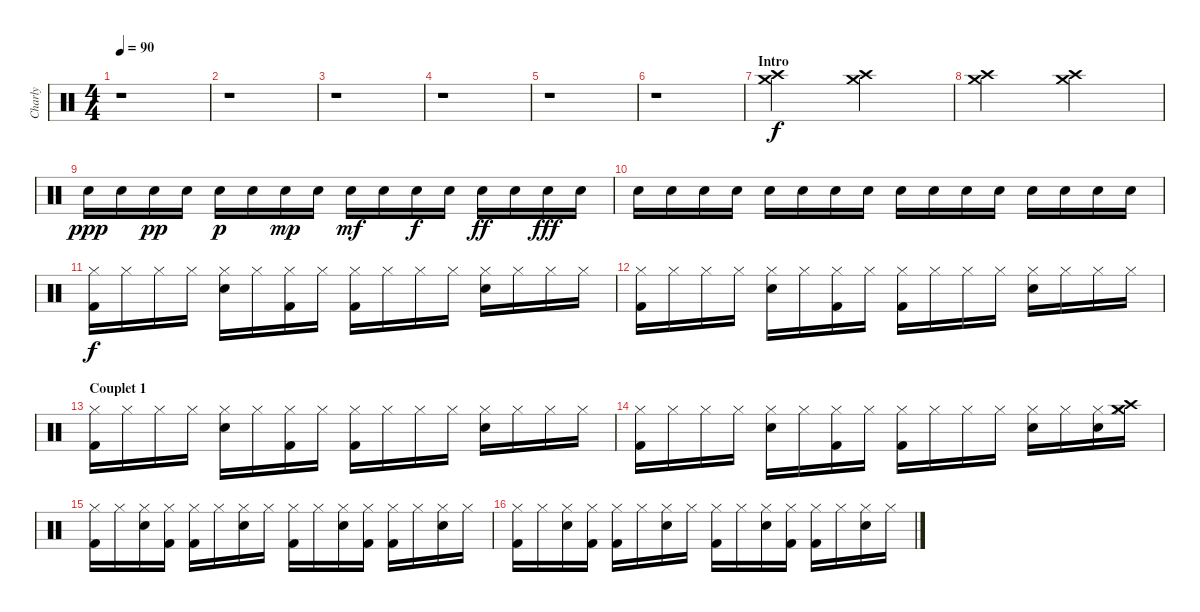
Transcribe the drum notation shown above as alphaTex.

\track ("Charly" "Charly") {instrument percussion}
\staff {score}
\articulation defaults
\ts (4 4)
\tempo 90
\clef neutral
\ks c
r.1{dy f} |
r.1 |
r.1 |
r.1 |
r.1 |
r.1 |
\section ("" "Intro")
("Crash high (hit)" "Crash medium (hit)").2 ("Crash high (hit)" "Crash medium (hit)").2 |
("Crash high (hit)" "Crash medium (hit)").2 ("Crash high (hit)" "Crash medium (hit)").2 |
"Electric Snare (hit)".16{dy ppp} "Electric Snare (hit)".16 "Electric Snare (hit)".16{dy pp} "Electric Snare (hit)".16 "Electric Snare (hit)".16{dy p} "Electric Snare (hit)".16 "Electric Snare (hit)".16{dy mp} "Electric Snare (hit)".16 "Electric Snare (hit)".16{dy mf} "Electric Snare (hit)".16 "Electric Snare (hit)".16{dy f} "Electric Snare (hit)".16 "Electric Snare (hit)".16{dy ff} "Electric Snare (hit)".16 "Electric Snare (hit)".16{dy fff} "Electric Snare (hit)".16 |
"Electric Snare (hit)".16 "Electric Snare (hit)".16 "Electric Snare (hit)".16 "Electric Snare (hit)".16 "Electric Snare (hit)".16 "Electric Snare (hit)".16 "Electric Snare (hit)".16 "Electric Snare (hit)".16 "Electric Snare (hit)".16 "Electric Snare (hit)".16 "Electric Snare (hit)".16 "Electric Snare (hit)".16 "Electric Snare (hit)".16 "Electric Snare (hit)".16 "Electric Snare (hit)".16 "Electric Snare (hit)".16 |
("Hi-Hat (closed)" "Kick (hit) 2").16{dy f} "Hi-Hat (closed)".16 "Hi-Hat (closed)".16 "Hi-Hat (closed)".16 ("Hi-Hat (closed)" "Electric Snare (hit)").16 "Hi-Hat (closed)".16 ("Hi-Hat (closed)" "Kick (hit) 2").16 "Hi-Hat (closed)".16 ("Hi-Hat (closed)" "Kick (hit) 2").16 "Hi-Hat (closed)".16 "Hi-Hat (closed)".16 "Hi-Hat (closed)".16 ("Hi-Hat (closed)" "Electric Snare (hit)").16 "Hi-Hat (closed)".16 "Hi-Hat (closed)".16 "Hi-Hat (closed)".16 |
("Hi-Hat (closed)" "Kick (hit) 2").16 "Hi-Hat (closed)".16 "Hi-Hat (closed)".16 "Hi-Hat (closed)".16 ("Hi-Hat (closed)" "Electric Snare (hit)").16 "Hi-Hat (closed)".16 ("Hi-Hat (closed)" "Kick (hit) 2").16 "Hi-Hat (closed)".16 ("Hi-Hat (closed)" "Kick (hit) 2").16 "Hi-Hat (closed)".16 "Hi-Hat (closed)".16 "Hi-Hat (closed)".16 ("Hi-Hat (closed)" "Electric Snare (hit)").16 "Hi-Hat (closed)".16 "Hi-Hat (closed)".16 "Hi-Hat (closed)".16 |
\section ("" "Couplet 1")
("Hi-Hat (closed)" "Kick (hit) 2").16 "Hi-Hat (closed)".16 "Hi-Hat (closed)".16 "Hi-Hat (closed)".16 ("Hi-Hat (closed)" "Electric Snare (hit)").16 "Hi-Hat (closed)".16 ("Hi-Hat (closed)" "Kick (hit) 2").16 "Hi-Hat (closed)".16 ("Hi-Hat (closed)" "Kick (hit) 2").16 "Hi-Hat (closed)".16 "Hi-Hat (closed)".16 "Hi-Hat (closed)".16 ("Hi-Hat (closed)" "Electric Snare (hit)").16 "Hi-Hat (closed)".16 "Hi-Hat (closed)".16 "Hi-Hat (closed)".16 |
("Hi-Hat (closed)" "Kick (hit) 2").16 "Hi-Hat (closed)".16 "Hi-Hat (closed)".16 "Hi-Hat (closed)".16 ("Hi-Hat (closed)" "Electric Snare (hit)").16 "Hi-Hat (closed)".16 ("Hi-Hat (closed)" "Kick (hit) 2").16 "Hi-Hat (closed)".16 ("Hi-Hat (closed)" "Kick (hit) 2").16 "Hi-Hat (closed)".16 "Hi-Hat (closed)".16 "Hi-Hat (closed)".16 ("Hi-Hat (closed)" "Electric Snare (hit)").16 "Hi-Hat (closed)".16 ("Hi-Hat (closed)" "Electric Snare (hit)").16 ("Hi-Hat (closed)" "Crash high (hit)" "Crash medium (hit)").16 |
("Hi-Hat (closed)" "Kick (hit) 2").16 "Hi-Hat (closed)".16 ("Hi-Hat (closed)" "Electric Snare (hit)").16 ("Hi-Hat (closed)" "Kick (hit) 2").16 ("Hi-Hat (closed)" "Kick (hit) 2").16 "Hi-Hat (closed)".16 ("Hi-Hat (closed)" "Electric Snare (hit)").16 "Hi-Hat (closed)".16 ("Hi-Hat (closed)" "Kick (hit) 2").16 "Hi-Hat (closed)".16 ("Hi-Hat (closed)" "Electric Snare (hit)").16 ("Hi-Hat (closed)" "Kick (hit) 2").16 ("Hi-Hat (closed)" "Kick (hit) 2").16 "Hi-Hat (closed)".16 ("Hi-Hat (closed)" "Electric Snare (hit)").16 "Hi-Hat (closed)".16 |
("Hi-Hat (closed)" "Kick (hit) 2").16 "Hi-Hat (closed)".16 ("Hi-Hat (closed)" "Electric Snare (hit)").16 ("Hi-Hat (closed)" "Kick (hit) 2").16 ("Hi-Hat (closed)" "Kick (hit) 2").16 "Hi-Hat (closed)".16 ("Hi-Hat (closed)" "Electric Snare (hit)").16 "Hi-Hat (closed)".16 ("Hi-Hat (closed)" "Kick (hit) 2").16 "Hi-Hat (closed)".16 ("Hi-Hat (closed)" "Electric Snare (hit)").16 ("Hi-Hat (closed)" "Kick (hit) 2").16 ("Hi-Hat (closed)" "Kick (hit) 2").16 "Hi-Hat (closed)".16 ("Hi-Hat (closed)" "Electric Snare (hit)").16 "Hi-Hat (closed)".16
